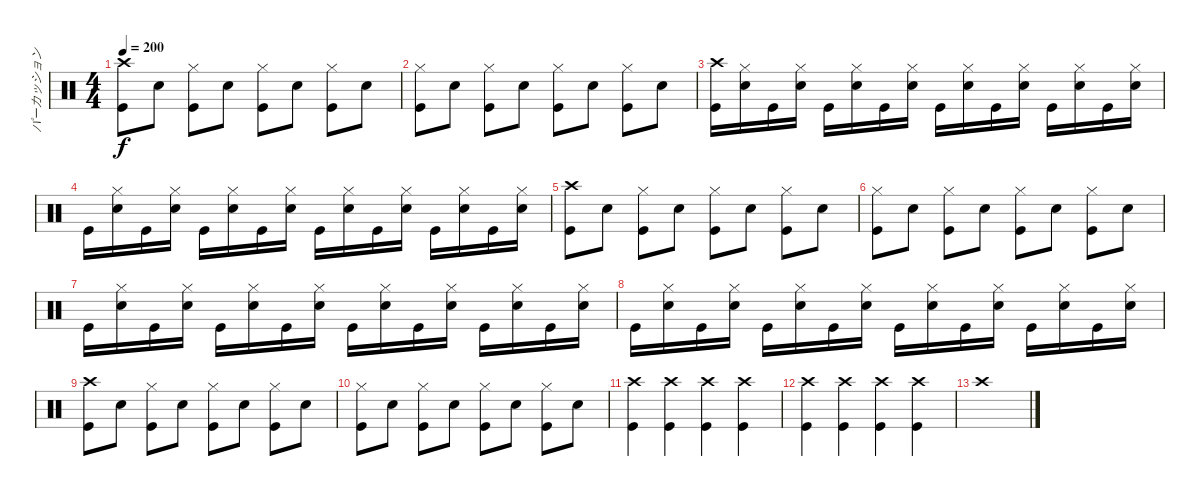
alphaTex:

\track ("パーカッション" "パーカッション") {instrument percussion}
\staff {score}
\articulation defaults
\ts (4 4)
\tempo 200
\clef neutral
\ks c
("Crash high (hit)" "Kick (hit)").8{dy f} "Snare (hit) 2".8 ("Hi-Hat (closed)" "Kick (hit)").8 "Snare (hit) 2".8 ("Hi-Hat (closed)" "Kick (hit)").8 "Snare (hit) 2".8 ("Hi-Hat (closed)" "Kick (hit)").8 "Snare (hit) 2".8 |
("Hi-Hat (closed)" "Kick (hit)").8 "Snare (hit) 2".8 ("Hi-Hat (closed)" "Kick (hit)").8 "Snare (hit) 2".8 ("Hi-Hat (closed)" "Kick (hit)").8 "Snare (hit) 2".8 ("Hi-Hat (closed)" "Kick (hit)").8 "Snare (hit) 2".8 |
("Crash high (hit)" "Kick (hit)").16 ("Hi-Hat (closed)" "Snare (hit) 2").16 "Kick (hit)".16 ("Hi-Hat (closed)" "Snare (hit) 2").16 "Kick (hit)".16 ("Hi-Hat (closed)" "Snare (hit) 2").16 "Kick (hit)".16 ("Hi-Hat (closed)" "Snare (hit) 2").16 "Kick (hit)".16 ("Hi-Hat (closed)" "Snare (hit) 2").16 "Kick (hit)".16 ("Hi-Hat (closed)" "Snare (hit) 2").16 "Kick (hit)".16 ("Hi-Hat (closed)" "Snare (hit) 2").16 "Kick (hit)".16 ("Hi-Hat (closed)" "Snare (hit) 2").16 |
"Kick (hit)".16 ("Hi-Hat (closed)" "Snare (hit) 2").16 "Kick (hit)".16 ("Hi-Hat (closed)" "Snare (hit) 2").16 "Kick (hit)".16 ("Hi-Hat (closed)" "Snare (hit) 2").16 "Kick (hit)".16 ("Hi-Hat (closed)" "Snare (hit) 2").16 "Kick (hit)".16 ("Hi-Hat (closed)" "Snare (hit) 2").16 "Kick (hit)".16 ("Hi-Hat (closed)" "Snare (hit) 2").16 "Kick (hit)".16 ("Hi-Hat (closed)" "Snare (hit) 2").16 "Kick (hit)".16 ("Hi-Hat (closed)" "Snare (hit) 2").16 |
("Crash high (hit)" "Kick (hit)").8 "Snare (hit) 2".8 ("Hi-Hat (closed)" "Kick (hit)").8 "Snare (hit) 2".8 ("Hi-Hat (closed)" "Kick (hit)").8 "Snare (hit) 2".8 ("Hi-Hat (closed)" "Kick (hit)").8 "Snare (hit) 2".8 |
("Hi-Hat (closed)" "Kick (hit)").8 "Snare (hit) 2".8 ("Hi-Hat (closed)" "Kick (hit)").8 "Snare (hit) 2".8 ("Hi-Hat (closed)" "Kick (hit)").8 "Snare (hit) 2".8 ("Hi-Hat (closed)" "Kick (hit)").8 "Snare (hit) 2".8 |
"Kick (hit)".16 ("Hi-Hat (closed)" "Snare (hit) 2").16 "Kick (hit)".16 ("Hi-Hat (closed)" "Snare (hit) 2").16 "Kick (hit)".16 ("Hi-Hat (closed)" "Snare (hit) 2").16 "Kick (hit)".16 ("Hi-Hat (closed)" "Snare (hit) 2").16 "Kick (hit)".16 ("Hi-Hat (closed)" "Snare (hit) 2").16 "Kick (hit)".16 ("Hi-Hat (closed)" "Snare (hit) 2").16 "Kick (hit)".16 ("Hi-Hat (closed)" "Snare (hit) 2").16 "Kick (hit)".16 ("Hi-Hat (closed)" "Snare (hit) 2").16 |
"Kick (hit)".16 ("Hi-Hat (closed)" "Snare (hit) 2").16 "Kick (hit)".16 ("Hi-Hat (closed)" "Snare (hit) 2").16 "Kick (hit)".16 ("Hi-Hat (closed)" "Snare (hit) 2").16 "Kick (hit)".16 ("Hi-Hat (closed)" "Snare (hit) 2").16 "Kick (hit)".16 ("Hi-Hat (closed)" "Snare (hit) 2").16 "Kick (hit)".16 ("Hi-Hat (closed)" "Snare (hit) 2").16 "Kick (hit)".16 ("Hi-Hat (closed)" "Snare (hit) 2").16 "Kick (hit)".16 ("Hi-Hat (closed)" "Snare (hit) 2").16 |
("Crash high (hit)" "Kick (hit)").8 "Snare (hit) 2".8 ("Hi-Hat (closed)" "Kick (hit)").8 "Snare (hit) 2".8 ("Hi-Hat (closed)" "Kick (hit)").8 "Snare (hit) 2".8 ("Hi-Hat (closed)" "Kick (hit)").8 "Snare (hit) 2".8 |
("Hi-Hat (closed)" "Kick (hit)").8 "Snare (hit) 2".8 ("Hi-Hat (closed)" "Kick (hit)").8 "Snare (hit) 2".8 ("Hi-Hat (closed)" "Kick (hit)").8 "Snare (hit) 2".8 ("Hi-Hat (closed)" "Kick (hit)").8 "Snare (hit) 2".8 |
("Crash high (hit)" "Kick (hit)").4 ("Crash high (hit)" "Kick (hit)").4 ("Crash high (hit)" "Kick (hit)").4 ("Crash high (hit)" "Kick (hit)").4 |
("Crash high (hit)" "Kick (hit)").4 ("Crash high (hit)" "Kick (hit)").4 ("Crash high (hit)" "Kick (hit)").4 ("Crash high (hit)" "Kick (hit)").4 |
"Crash high (hit)".1
